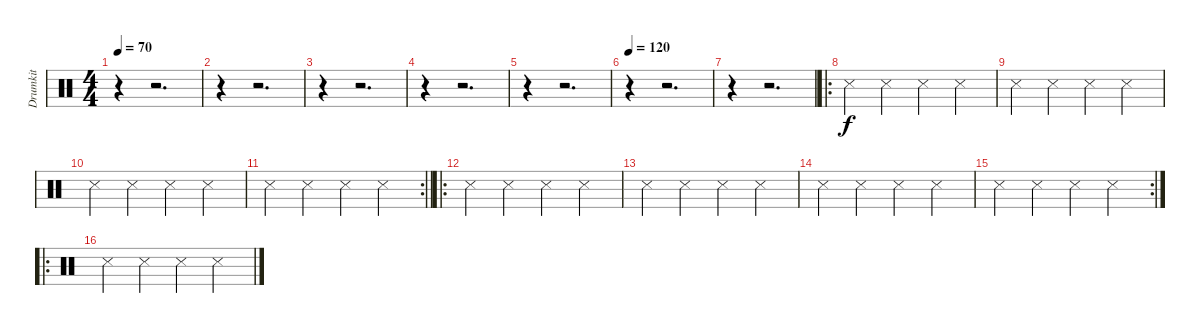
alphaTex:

\track ("Drumkit" "Drumkit") {instrument percussion}
\staff {score}
\articulation defaults
\ts (4 4)
\tempo 70
\clef neutral
\ks c
r.4{dy f} r.2{d} |
r.4 r.2{d} |
r.4 r.2{d} |
r.4 r.2{d} |
r.4 r.2{d} |
\tempo 120
r.4 r.2{d} |
r.4 r.2{d} |
\ro "Snare (side stick) 3".4 "Snare (side stick) 3".4 "Snare (side stick) 3".4 "Snare (side stick) 3".4
|
"Snare (side stick) 3".4 "Snare (side stick) 3".4 "Snare (side stick) 3".4 "Snare (side stick) 3".4 |
"Snare (side stick) 3".4 "Snare (side stick) 3".4 "Snare (side stick) 3".4 "Snare (side stick) 3".4 |
\rc 2
\barLineRight lightlight "Snare (side stick) 3".4 "Snare (side stick) 3".4 "Snare (side stick) 3".4 "Snare (side stick) 3".4
|
\ro "Snare (side stick) 3".4 "Snare (side stick) 3".4 "Snare (side stick) 3".4 "Snare (side stick) 3".4
|
"Snare (side stick) 3".4 "Snare (side stick) 3".4 "Snare (side stick) 3".4 "Snare (side stick) 3".4 |
"Snare (side stick) 3".4 "Snare (side stick) 3".4 "Snare (side stick) 3".4 "Snare (side stick) 3".4 |
\rc 2 "Snare (side stick) 3".4 "Snare (side stick) 3".4 "Snare (side stick) 3".4 "Snare (side stick) 3".4
|
\ro "Snare (side stick) 3".4 "Snare (side stick) 3".4 "Snare (side stick) 3".4 "Snare (side stick) 3".4
